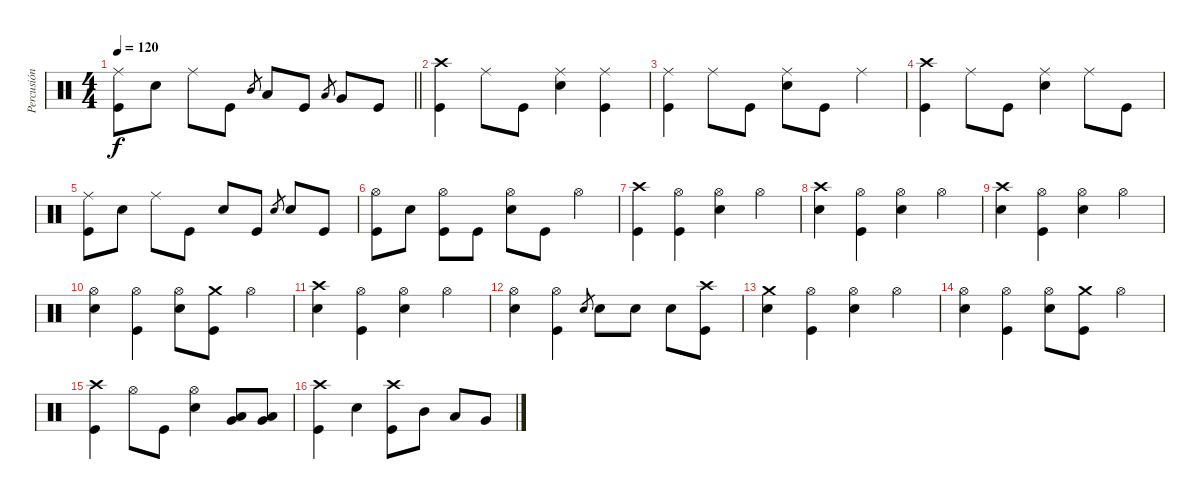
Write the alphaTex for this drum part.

\track ("Percusión" "Percusión") {instrument percussion}
\staff {score}
\articulation defaults
\ts (4 4)
\tempo 120
\clef neutral
\barLineRight lightlight
\ks c
("Ride (middle)" "Kick (hit)").8{dy f} "Electric Snare (hit)".8 "Ride (middle)".8 "Kick (hit)".8 "Mid Tom (hit)".8{gr} "Low Tom (hit)".8 "Kick (hit)".8 "Low Tom (hit)".8{gr} "Very Low Tom (hit)".8 "Kick (hit)".8 |
("Crash high (hit)" "Kick (hit)").4 "Ride (middle)".8 "Kick (hit)".8 ("Ride (middle)" "Electric Snare (hit)").4 ("Ride (middle)" "Kick (hit)").4 |
("Ride (middle)" "Kick (hit)").4 "Ride (middle)".8 "Kick (hit)".8 ("Ride (middle)" "Electric Snare (hit)").8 "Kick (hit)".8 "Ride (middle)".4 |
("Crash high (hit)" "Kick (hit)").4 "Ride (middle)".8 "Kick (hit)".8 ("Ride (middle)" "Electric Snare (hit)").4 "Ride (middle)".8 "Kick (hit)".8 |
("Ride (middle)" "Kick (hit)").8 "Electric Snare (hit)".8 "Ride (middle)".8 "Kick (hit)".8 "Electric Snare (hit)".8 "Kick (hit)".8 "Electric Snare (hit)".8{gr} "Electric Snare (hit)".8 "Kick (hit)".8 |
("Hi-Hat (open)" "Kick (hit)").8 "Electric Snare (hit)".8 ("Hi-Hat (open)" "Kick (hit)").8 "Kick (hit)".8 ("Hi-Hat (open)" "Electric Snare (hit)").8 "Kick (hit)".8 "Hi-Hat (open)".4 |
("Crash high (hit)" "Kick (hit)").4 ("Hi-Hat (open)" "Kick (hit)").4 ("Hi-Hat (open)" "Electric Snare (hit)").4 "Hi-Hat (open)".4 |
("Crash high (hit)" "Electric Snare (hit)").4 ("Hi-Hat (open)" "Kick (hit)").4 ("Hi-Hat (open)" "Electric Snare (hit)").4 "Hi-Hat (open)".4 |
("Crash high (hit)" "Electric Snare (hit)").4 ("Hi-Hat (open)" "Kick (hit)").4 ("Hi-Hat (open)" "Electric Snare (hit)").4 "Hi-Hat (open)".4 |
("Hi-Hat (open)" "Electric Snare (hit)").4 ("Hi-Hat (open)" "Kick (hit)").4 ("Hi-Hat (open)" "Electric Snare (hit)").8 ("Crash medium (hit)" "Kick (hit)").8 "Hi-Hat (open)".4 |
("Crash high (hit)" "Electric Snare (hit)").4 ("Hi-Hat (open)" "Kick (hit)").4 ("Hi-Hat (open)" "Electric Snare (hit)").4 "Hi-Hat (open)".4 |
("Hi-Hat (open)" "Electric Snare (hit)").4 ("Hi-Hat (open)" "Kick (hit)").4 "Electric Snare (hit)".8{gr} "Electric Snare (hit)".8 "Electric Snare (hit)".8 "Electric Snare (hit)".8 ("Crash high (hit)" "Kick (hit)").8 |
("Crash medium (hit)" "Electric Snare (hit)").4 ("Hi-Hat (open)" "Kick (hit)").4 ("Hi-Hat (open)" "Electric Snare (hit)").4 "Hi-Hat (open)".4 |
("Hi-Hat (open)" "Electric Snare (hit)").4 ("Hi-Hat (open)" "Kick (hit)").4 ("Hi-Hat (open)" "Electric Snare (hit)").8 ("Crash medium (hit)" "Kick (hit)").8 "Hi-Hat (open)".4 |
("Crash high (hit)" "Kick (hit)").4 "Hi-Hat (open)".8 "Kick (hit)".8 ("Hi-Hat (open)" "Electric Snare (hit)").4 ("Very Low Tom (hit)" "Low Tom (hit)").8 ("Very Low Tom (hit)" "Low Tom (hit)").8 |
("Crash high (hit)" "Kick (hit)").4 "Electric Snare (hit)".4 ("Crash high (hit)" "Kick (hit)").8 "Mid Tom (hit)".8 "Low Tom (hit)".8 "Very Low Tom (hit)".8
